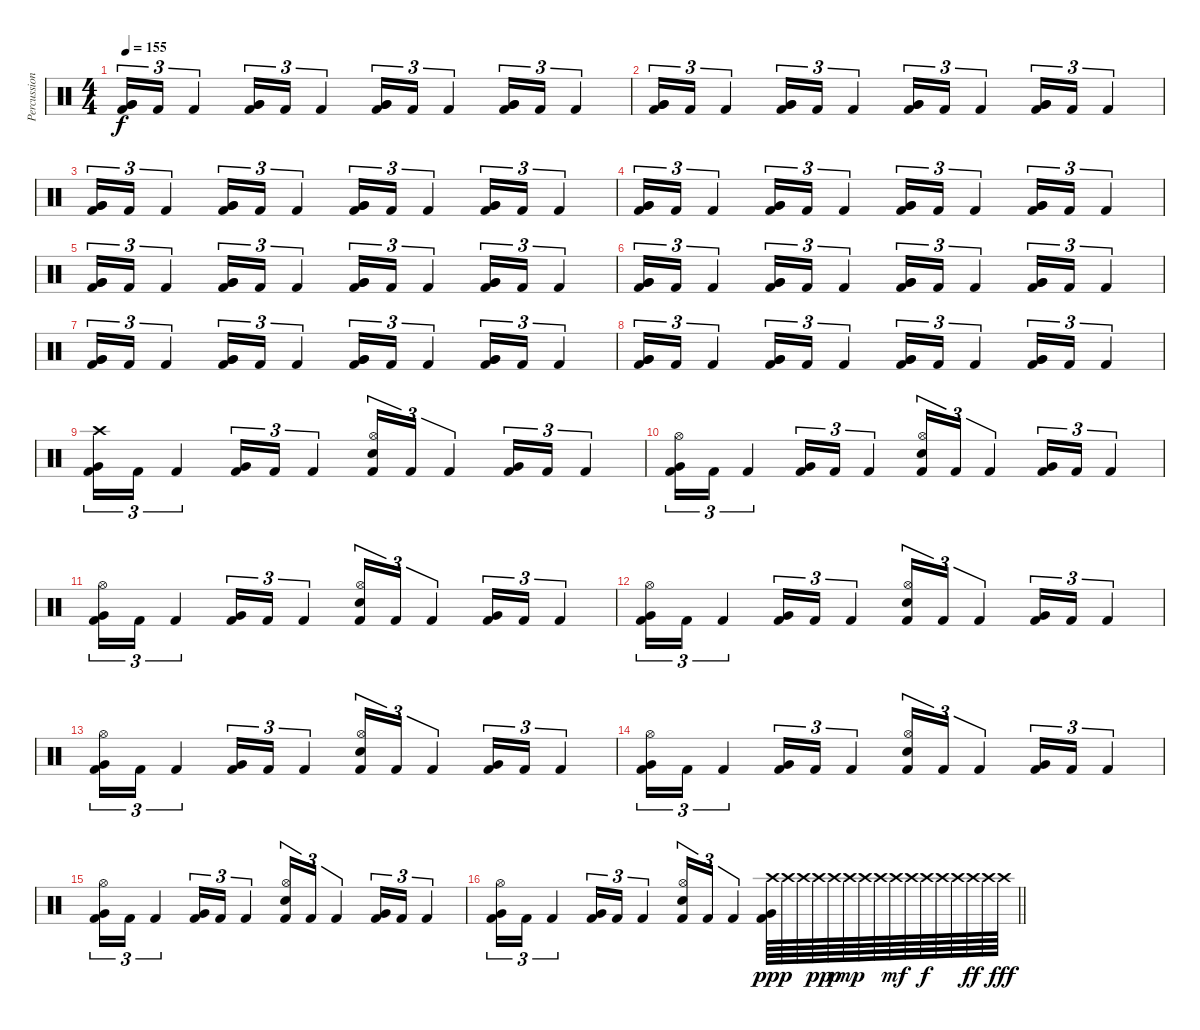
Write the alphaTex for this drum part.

\track ("Percussion" "Percussion") {instrument percussion}
\staff {score}
\articulation defaults
\ts (4 4)
\tempo 155
\clef neutral
\ks c
("Very Low Tom (hit)" "Very Low Tom (hit)" "Kick (hit) 2").16{tu (3 2) bd 60 dy f} "Kick (hit) 2".16{tu (3 2)} "Kick (hit) 2".4{tu (3 2)} ("Very Low Tom (hit)" "Very Low Tom (hit)" "Kick (hit) 2").16{tu (3 2) bd 60} "Kick (hit) 2".16{tu (3 2)} "Kick (hit) 2".4{tu (3 2)} ("Very Low Tom (hit)" "Very Low Tom (hit)" "Kick (hit) 2").16{tu (3 2) bd 60} "Kick (hit) 2".16{tu (3 2)} "Kick (hit) 2".4{tu (3 2)} ("Very Low Tom (hit)" "Very Low Tom (hit)" "Kick (hit) 2").16{tu (3 2) bd 60} "Kick (hit) 2".16{tu (3 2)} "Kick (hit) 2".4{tu (3 2)} |
("Very Low Tom (hit)" "Very Low Tom (hit)" "Kick (hit) 2").16{tu (3 2) bd 60} "Kick (hit) 2".16{tu (3 2)} "Kick (hit) 2".4{tu (3 2)} ("Very Low Tom (hit)" "Very Low Tom (hit)" "Kick (hit) 2").16{tu (3 2) bd 60} "Kick (hit) 2".16{tu (3 2)} "Kick (hit) 2".4{tu (3 2)} ("Very Low Tom (hit)" "Very Low Tom (hit)" "Kick (hit) 2").16{tu (3 2) bd 60} "Kick (hit) 2".16{tu (3 2)} "Kick (hit) 2".4{tu (3 2)} ("Very Low Tom (hit)" "Very Low Tom (hit)" "Kick (hit) 2").16{tu (3 2) bd 60} "Kick (hit) 2".16{tu (3 2)} "Kick (hit) 2".4{tu (3 2)} |
("Very Low Tom (hit)" "Very Low Tom (hit)" "Kick (hit) 2").16{tu (3 2) bd 60} "Kick (hit) 2".16{tu (3 2)} "Kick (hit) 2".4{tu (3 2)} ("Very Low Tom (hit)" "Very Low Tom (hit)" "Kick (hit) 2").16{tu (3 2) bd 60} "Kick (hit) 2".16{tu (3 2)} "Kick (hit) 2".4{tu (3 2)} ("Very Low Tom (hit)" "Very Low Tom (hit)" "Kick (hit) 2").16{tu (3 2) bd 60} "Kick (hit) 2".16{tu (3 2)} "Kick (hit) 2".4{tu (3 2)} ("Very Low Tom (hit)" "Very Low Tom (hit)" "Kick (hit) 2").16{tu (3 2) bd 60} "Kick (hit) 2".16{tu (3 2)} "Kick (hit) 2".4{tu (3 2)} |
("Very Low Tom (hit)" "Very Low Tom (hit)" "Kick (hit) 2").16{tu (3 2) bd 60} "Kick (hit) 2".16{tu (3 2)} "Kick (hit) 2".4{tu (3 2)} ("Very Low Tom (hit)" "Very Low Tom (hit)" "Kick (hit) 2").16{tu (3 2) bd 60} "Kick (hit) 2".16{tu (3 2)} "Kick (hit) 2".4{tu (3 2)} ("Very Low Tom (hit)" "Very Low Tom (hit)" "Kick (hit) 2").16{tu (3 2) bd 60} "Kick (hit) 2".16{tu (3 2)} "Kick (hit) 2".4{tu (3 2)} ("Very Low Tom (hit)" "Very Low Tom (hit)" "Kick (hit) 2").16{tu (3 2) bd 60} "Kick (hit) 2".16{tu (3 2)} "Kick (hit) 2".4{tu (3 2)} |
("Very Low Tom (hit)" "Very Low Tom (hit)" "Kick (hit) 2").16{tu (3 2) bd 60} "Kick (hit) 2".16{tu (3 2)} "Kick (hit) 2".4{tu (3 2)} ("Very Low Tom (hit)" "Very Low Tom (hit)" "Kick (hit) 2").16{tu (3 2) bd 60} "Kick (hit) 2".16{tu (3 2)} "Kick (hit) 2".4{tu (3 2)} ("Very Low Tom (hit)" "Very Low Tom (hit)" "Kick (hit) 2").16{tu (3 2) bd 60} "Kick (hit) 2".16{tu (3 2)} "Kick (hit) 2".4{tu (3 2)} ("Very Low Tom (hit)" "Very Low Tom (hit)" "Kick (hit) 2").16{tu (3 2) bd 60} "Kick (hit) 2".16{tu (3 2)} "Kick (hit) 2".4{tu (3 2)} |
("Very Low Tom (hit)" "Very Low Tom (hit)" "Kick (hit) 2").16{tu (3 2) bd 60} "Kick (hit) 2".16{tu (3 2)} "Kick (hit) 2".4{tu (3 2)} ("Very Low Tom (hit)" "Very Low Tom (hit)" "Kick (hit) 2").16{tu (3 2) bd 60} "Kick (hit) 2".16{tu (3 2)} "Kick (hit) 2".4{tu (3 2)} ("Very Low Tom (hit)" "Very Low Tom (hit)" "Kick (hit) 2").16{tu (3 2) bd 60} "Kick (hit) 2".16{tu (3 2)} "Kick (hit) 2".4{tu (3 2)} ("Very Low Tom (hit)" "Very Low Tom (hit)" "Kick (hit) 2").16{tu (3 2) bd 60} "Kick (hit) 2".16{tu (3 2)} "Kick (hit) 2".4{tu (3 2)} |
("Very Low Tom (hit)" "Very Low Tom (hit)" "Kick (hit) 2").16{tu (3 2) bd 60} "Kick (hit) 2".16{tu (3 2)} "Kick (hit) 2".4{tu (3 2)} ("Very Low Tom (hit)" "Very Low Tom (hit)" "Kick (hit) 2").16{tu (3 2) bd 60} "Kick (hit) 2".16{tu (3 2)} "Kick (hit) 2".4{tu (3 2)} ("Very Low Tom (hit)" "Very Low Tom (hit)" "Kick (hit) 2").16{tu (3 2) bd 60} "Kick (hit) 2".16{tu (3 2)} "Kick (hit) 2".4{tu (3 2)} ("Very Low Tom (hit)" "Very Low Tom (hit)" "Kick (hit) 2").16{tu (3 2) bd 60} "Kick (hit) 2".16{tu (3 2)} "Kick (hit) 2".4{tu (3 2)} |
("Very Low Tom (hit)" "Very Low Tom (hit)" "Kick (hit) 2").16{tu (3 2) bd 60} "Kick (hit) 2".16{tu (3 2)} "Kick (hit) 2".4{tu (3 2)} ("Very Low Tom (hit)" "Very Low Tom (hit)" "Kick (hit) 2").16{tu (3 2) bd 60} "Kick (hit) 2".16{tu (3 2)} "Kick (hit) 2".4{tu (3 2)} ("Very Low Tom (hit)" "Very Low Tom (hit)" "Kick (hit) 2").16{tu (3 2) bd 60} "Kick (hit) 2".16{tu (3 2)} "Kick (hit) 2".4{tu (3 2)} ("Very Low Tom (hit)" "Very Low Tom (hit)" "Kick (hit) 2").16{tu (3 2) bd 60} "Kick (hit) 2".16{tu (3 2)} "Kick (hit) 2".4{tu (3 2)} |
("Crash high (hit)" "Very Low Tom (hit)" "Kick (hit) 2").16{tu (3 2)} "Kick (hit) 2".16{tu (3 2)} "Kick (hit) 2".4{tu (3 2)} ("Very Low Tom (hit)" "Kick (hit) 2").16{tu (3 2)} "Kick (hit) 2".16{tu (3 2)} "Kick (hit) 2".4{tu (3 2)} ("Hi-Hat (open)" "Electric Snare (hit)" "Kick (hit) 2").16{tu (3 2)} "Kick (hit) 2".16{tu (3 2)} "Kick (hit) 2".4{tu (3 2)} ("Very Low Tom (hit)" "Kick (hit) 2").16{tu (3 2)} "Kick (hit) 2".16{tu (3 2)} "Kick (hit) 2".4{tu (3 2)} |
("Hi-Hat (open)" "Very Low Tom (hit)" "Kick (hit) 2").16{tu (3 2)} "Kick (hit) 2".16{tu (3 2)} "Kick (hit) 2".4{tu (3 2)} ("Very Low Tom (hit)" "Kick (hit) 2").16{tu (3 2)} "Kick (hit) 2".16{tu (3 2)} "Kick (hit) 2".4{tu (3 2)} ("Hi-Hat (open)" "Electric Snare (hit)" "Kick (hit) 2").16{tu (3 2)} "Kick (hit) 2".16{tu (3 2)} "Kick (hit) 2".4{tu (3 2)} ("Very Low Tom (hit)" "Kick (hit) 2").16{tu (3 2)} "Kick (hit) 2".16{tu (3 2)} "Kick (hit) 2".4{tu (3 2)} |
("Hi-Hat (open)" "Very Low Tom (hit)" "Kick (hit) 2").16{tu (3 2)} "Kick (hit) 2".16{tu (3 2)} "Kick (hit) 2".4{tu (3 2)} ("Very Low Tom (hit)" "Kick (hit) 2").16{tu (3 2)} "Kick (hit) 2".16{tu (3 2)} "Kick (hit) 2".4{tu (3 2)} ("Hi-Hat (open)" "Electric Snare (hit)" "Kick (hit) 2").16{tu (3 2)} "Kick (hit) 2".16{tu (3 2)} "Kick (hit) 2".4{tu (3 2)} ("Very Low Tom (hit)" "Kick (hit) 2").16{tu (3 2)} "Kick (hit) 2".16{tu (3 2)} "Kick (hit) 2".4{tu (3 2)} |
("Hi-Hat (open)" "Very Low Tom (hit)" "Kick (hit) 2").16{tu (3 2)} "Kick (hit) 2".16{tu (3 2)} "Kick (hit) 2".4{tu (3 2)} ("Very Low Tom (hit)" "Kick (hit) 2").16{tu (3 2)} "Kick (hit) 2".16{tu (3 2)} "Kick (hit) 2".4{tu (3 2)} ("Hi-Hat (open)" "Electric Snare (hit)" "Kick (hit) 2").16{tu (3 2)} "Kick (hit) 2".16{tu (3 2)} "Kick (hit) 2".4{tu (3 2)} ("Very Low Tom (hit)" "Kick (hit) 2").16{tu (3 2)} "Kick (hit) 2".16{tu (3 2)} "Kick (hit) 2".4{tu (3 2)} |
("Hi-Hat (open)" "Very Low Tom (hit)" "Kick (hit) 2").16{tu (3 2)} "Kick (hit) 2".16{tu (3 2)} "Kick (hit) 2".4{tu (3 2)} ("Very Low Tom (hit)" "Kick (hit) 2").16{tu (3 2)} "Kick (hit) 2".16{tu (3 2)} "Kick (hit) 2".4{tu (3 2)} ("Hi-Hat (open)" "Electric Snare (hit)" "Kick (hit) 2").16{tu (3 2)} "Kick (hit) 2".16{tu (3 2)} "Kick (hit) 2".4{tu (3 2)} ("Very Low Tom (hit)" "Kick (hit) 2").16{tu (3 2)} "Kick (hit) 2".16{tu (3 2)} "Kick (hit) 2".4{tu (3 2)} |
("Hi-Hat (open)" "Very Low Tom (hit)" "Kick (hit) 2").16{tu (3 2)} "Kick (hit) 2".16{tu (3 2)} "Kick (hit) 2".4{tu (3 2)} ("Very Low Tom (hit)" "Kick (hit) 2").16{tu (3 2)} "Kick (hit) 2".16{tu (3 2)} "Kick (hit) 2".4{tu (3 2)} ("Hi-Hat (open)" "Electric Snare (hit)" "Kick (hit) 2").16{tu (3 2)} "Kick (hit) 2".16{tu (3 2)} "Kick (hit) 2".4{tu (3 2)} ("Very Low Tom (hit)" "Kick (hit) 2").16{tu (3 2)} "Kick (hit) 2".16{tu (3 2)} "Kick (hit) 2".4{tu (3 2)} |
("Hi-Hat (open)" "Very Low Tom (hit)" "Kick (hit) 2").16{tu (3 2)} "Kick (hit) 2".16{tu (3 2)} "Kick (hit) 2".4{tu (3 2)} ("Very Low Tom (hit)" "Kick (hit) 2").16{tu (3 2)} "Kick (hit) 2".16{tu (3 2)} "Kick (hit) 2".4{tu (3 2)} ("Hi-Hat (open)" "Electric Snare (hit)" "Kick (hit) 2").16{tu (3 2)} "Kick (hit) 2".16{tu (3 2)} "Kick (hit) 2".4{tu (3 2)} ("Very Low Tom (hit)" "Kick (hit) 2").16{tu (3 2)} "Kick (hit) 2".16{tu (3 2)} "Kick (hit) 2".4{tu (3 2)} |
\barLineRight lightlight
("Hi-Hat (open)" "Very Low Tom (hit)" "Kick (hit) 2").16{tu (3 2)} "Kick (hit) 2".16{tu (3 2)} "Kick (hit) 2".4{tu (3 2)} ("Very Low Tom (hit)" "Kick (hit) 2").16{tu (3 2)} "Kick (hit) 2".16{tu (3 2)} "Kick (hit) 2".4{tu (3 2)} ("Hi-Hat (open)" "Electric Snare (hit)" "Kick (hit) 2").16{tu (3 2)} "Kick (hit) 2".16{tu (3 2)} "Kick (hit) 2".4{tu (3 2)} ("Crash high (hit)" "Very Low Tom (hit)" "Kick (hit) 2").64{dy ppp} "Crash high (hit)".64 "Crash high (hit)".64 "Crash high (hit)".64{dy pp} "Crash high (hit)".64{dy p} "Crash high (hit)".64{dy mp} "Crash high (hit)".64 "Crash high (hit)".64 "Crash high (hit)".64{dy mf} "Crash high (hit)".64 "Crash high (hit)".64{dy f} "Crash high (hit)".64 "Crash high (hit)".64 "Crash high (hit)".64{dy ff} "Crash high (hit)".64 "Crash high (hit)".64{dy fff}
